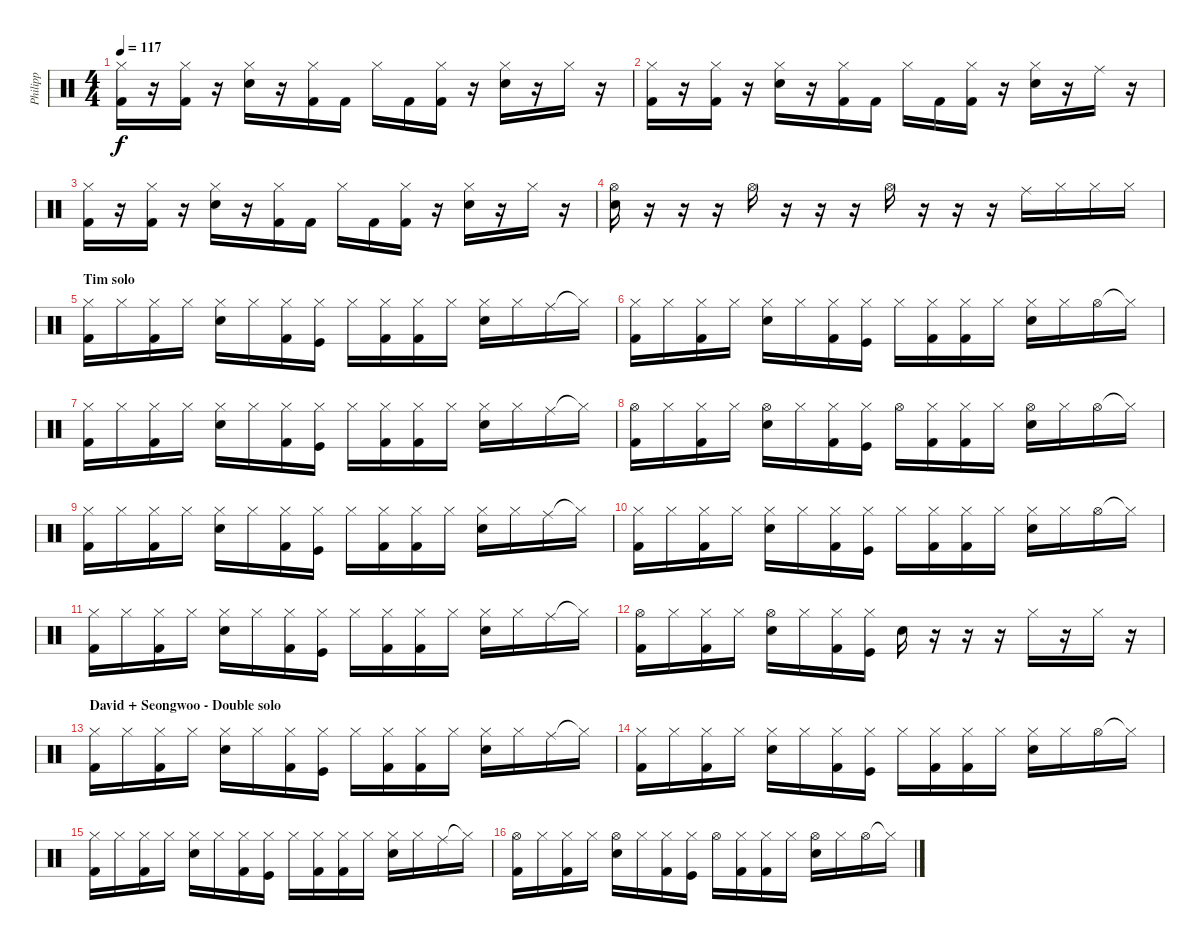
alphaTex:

\track ("Philipp" "Philipp") {instrument percussion}
\staff {score}
\articulation defaults
\ts (4 4)
\tempo 117
\clef neutral
\ks c
("Hi-Hat (closed)" "Kick (hit) 2").16{dy f} r.16 ("Hi-Hat (closed)" "Kick (hit) 2").16 r.16 ("Hi-Hat (closed)" "Electric Snare (hit)").16 r.16 ("Hi-Hat (closed)" "Kick (hit) 2").16 "Kick (hit) 2".16 "Hi-Hat (closed)".16 "Kick (hit) 2".16 ("Hi-Hat (closed)" "Kick (hit) 2").16 r.16 ("Hi-Hat (closed)" "Electric Snare (hit)").16 r.16 "Hi-Hat (closed)".16 r.16 |
("Hi-Hat (closed)" "Kick (hit) 2").16 r.16 ("Hi-Hat (closed)" "Kick (hit) 2").16 r.16 ("Hi-Hat (closed)" "Electric Snare (hit)").16 r.16 ("Hi-Hat (closed)" "Kick (hit) 2").16 "Kick (hit) 2".16 "Hi-Hat (closed)".16 "Kick (hit) 2".16 ("Hi-Hat (closed)" "Kick (hit) 2").16 r.16 ("Hi-Hat (closed)" "Electric Snare (hit)").16 r.16 "Ride (middle)".16 r.16 |
("Hi-Hat (closed)" "Kick (hit) 2").16 r.16 ("Hi-Hat (closed)" "Kick (hit) 2").16 r.16 ("Hi-Hat (closed)" "Electric Snare (hit)").16 r.16 ("Hi-Hat (closed)" "Kick (hit) 2").16 "Kick (hit) 2".16 "Hi-Hat (closed)".16 "Kick (hit) 2".16 ("Hi-Hat (closed)" "Kick (hit) 2").16 r.16 ("Hi-Hat (closed)" "Electric Snare (hit)").16 r.16 "Hi-Hat (closed)".16 r.16 |
("Hi-Hat (open)" "Electric Snare (hit)").16 r.16 r.16 r.16 "Hi-Hat (open)".16 r.16 r.16 r.16 "Hi-Hat (open)".16 r.16 r.16 r.16 "Ride (middle)".16 "Hi-Hat (closed)".16 "Hi-Hat (closed)".16 "Hi-Hat (closed)".16 |
\section ("" "Tim solo")
("Hi-Hat (closed)" "Kick (hit) 2").16 "Hi-Hat (closed)".16 ("Hi-Hat (closed)" "Kick (hit) 2").16 "Hi-Hat (closed)".16 ("Hi-Hat (closed)" "Electric Snare (hit)").16 "Hi-Hat (closed)".16 ("Hi-Hat (closed)" "Kick (hit) 2").16 ("Hi-Hat (closed)" "Kick (hit)").16 "Hi-Hat (closed)".16 ("Hi-Hat (closed)" "Kick (hit) 2").16 ("Hi-Hat (closed)" "Kick (hit) 2").16 "Hi-Hat (closed)".16 ("Hi-Hat (closed)" "Electric Snare (hit)").16 "Hi-Hat (closed)".16 "Ride (middle)".16 "Hi-Hat (closed)"{t}.16 |
("Hi-Hat (closed)" "Kick (hit) 2").16 "Hi-Hat (closed)".16 ("Hi-Hat (closed)" "Kick (hit) 2").16 "Hi-Hat (closed)".16 ("Hi-Hat (closed)" "Electric Snare (hit)").16 "Hi-Hat (closed)".16 ("Hi-Hat (closed)" "Kick (hit) 2").16 ("Hi-Hat (closed)" "Kick (hit)").16 "Hi-Hat (closed)".16 ("Hi-Hat (closed)" "Kick (hit) 2").16 ("Hi-Hat (closed)" "Kick (hit) 2").16 "Hi-Hat (closed)".16 ("Hi-Hat (closed)" "Electric Snare (hit)").16 "Hi-Hat (closed)".16 "Hi-Hat (open)".16 "Hi-Hat (closed)"{t}.16 |
("Hi-Hat (closed)" "Kick (hit) 2").16 "Hi-Hat (closed)".16 ("Hi-Hat (closed)" "Kick (hit) 2").16 "Hi-Hat (closed)".16 ("Hi-Hat (closed)" "Electric Snare (hit)").16 "Hi-Hat (closed)".16 ("Hi-Hat (closed)" "Kick (hit) 2").16 ("Hi-Hat (closed)" "Kick (hit)").16 "Hi-Hat (closed)".16 ("Hi-Hat (closed)" "Kick (hit) 2").16 ("Hi-Hat (closed)" "Kick (hit) 2").16 "Hi-Hat (closed)".16 ("Hi-Hat (closed)" "Electric Snare (hit)").16 "Hi-Hat (closed)".16 "Ride (middle)".16 "Hi-Hat (closed)"{t}.16 |
("Hi-Hat (open)" "Kick (hit) 2").16 "Hi-Hat (closed)".16 ("Hi-Hat (closed)" "Kick (hit) 2").16 "Hi-Hat (closed)".16 ("Hi-Hat (open)" "Electric Snare (hit)").16 "Hi-Hat (closed)".16 ("Hi-Hat (closed)" "Kick (hit) 2").16 ("Hi-Hat (closed)" "Kick (hit)").16 "Hi-Hat (open)".16 ("Hi-Hat (closed)" "Kick (hit) 2").16 ("Hi-Hat (closed)" "Kick (hit) 2").16 "Hi-Hat (closed)".16 ("Hi-Hat (open)" "Electric Snare (hit)").16 "Hi-Hat (closed)".16 "Hi-Hat (open)".16 "Hi-Hat (closed)"{t}.16 |
("Hi-Hat (closed)" "Kick (hit) 2").16 "Hi-Hat (closed)".16 ("Hi-Hat (closed)" "Kick (hit) 2").16 "Hi-Hat (closed)".16 ("Hi-Hat (closed)" "Electric Snare (hit)").16 "Hi-Hat (closed)".16 ("Hi-Hat (closed)" "Kick (hit) 2").16 ("Hi-Hat (closed)" "Kick (hit)").16 "Hi-Hat (closed)".16 ("Hi-Hat (closed)" "Kick (hit) 2").16 ("Hi-Hat (closed)" "Kick (hit) 2").16 "Hi-Hat (closed)".16 ("Hi-Hat (closed)" "Electric Snare (hit)").16 "Hi-Hat (closed)".16 "Ride (middle)".16 "Hi-Hat (closed)"{t}.16 |
("Hi-Hat (closed)" "Kick (hit) 2").16 "Hi-Hat (closed)".16 ("Hi-Hat (closed)" "Kick (hit) 2").16 "Hi-Hat (closed)".16 ("Hi-Hat (closed)" "Electric Snare (hit)").16 "Hi-Hat (closed)".16 ("Hi-Hat (closed)" "Kick (hit) 2").16 ("Hi-Hat (closed)" "Kick (hit)").16 "Hi-Hat (closed)".16 ("Hi-Hat (closed)" "Kick (hit) 2").16 ("Hi-Hat (closed)" "Kick (hit) 2").16 "Hi-Hat (closed)".16 ("Hi-Hat (closed)" "Electric Snare (hit)").16 "Hi-Hat (closed)".16 "Hi-Hat (open)".16 "Hi-Hat (closed)"{t}.16 |
("Hi-Hat (closed)" "Kick (hit) 2").16 "Hi-Hat (closed)".16 ("Hi-Hat (closed)" "Kick (hit) 2").16 "Hi-Hat (closed)".16 ("Hi-Hat (closed)" "Electric Snare (hit)").16 "Hi-Hat (closed)".16 ("Hi-Hat (closed)" "Kick (hit) 2").16 ("Hi-Hat (closed)" "Kick (hit)").16 "Hi-Hat (closed)".16 ("Hi-Hat (closed)" "Kick (hit) 2").16 ("Hi-Hat (closed)" "Kick (hit) 2").16 "Hi-Hat (closed)".16 ("Hi-Hat (closed)" "Electric Snare (hit)").16 "Hi-Hat (closed)".16 "Ride (middle)".16 "Hi-Hat (closed)"{t}.16 |
("Hi-Hat (open)" "Kick (hit) 2").16 "Hi-Hat (closed)".16 ("Hi-Hat (closed)" "Kick (hit) 2").16 "Hi-Hat (closed)".16 ("Hi-Hat (open)" "Electric Snare (hit)").16 "Hi-Hat (closed)".16 ("Hi-Hat (closed)" "Kick (hit) 2").16 ("Hi-Hat (closed)" "Kick (hit)").16 "Electric Snare (hit)".16 r.16 r.16 r.16 "Hi-Hat (closed)".16 r.16 "Hi-Hat (closed)".16 r.16 |
\section ("" "David + Seongwoo - Double solo")
("Hi-Hat (closed)" "Kick (hit) 2").16 "Hi-Hat (closed)".16 ("Hi-Hat (closed)" "Kick (hit) 2").16 "Hi-Hat (closed)".16 ("Hi-Hat (closed)" "Electric Snare (hit)").16 "Hi-Hat (closed)".16 ("Hi-Hat (closed)" "Kick (hit) 2").16 ("Hi-Hat (closed)" "Kick (hit)").16 "Hi-Hat (closed)".16 ("Hi-Hat (closed)" "Kick (hit) 2").16 ("Hi-Hat (closed)" "Kick (hit) 2").16 "Hi-Hat (closed)".16 ("Hi-Hat (closed)" "Electric Snare (hit)").16 "Hi-Hat (closed)".16 "Ride (middle)".16 "Hi-Hat (closed)"{t}.16 |
("Hi-Hat (closed)" "Kick (hit) 2").16 "Hi-Hat (closed)".16 ("Hi-Hat (closed)" "Kick (hit) 2").16 "Hi-Hat (closed)".16 ("Hi-Hat (closed)" "Electric Snare (hit)").16 "Hi-Hat (closed)".16 ("Hi-Hat (closed)" "Kick (hit) 2").16 ("Hi-Hat (closed)" "Kick (hit)").16 "Hi-Hat (closed)".16 ("Hi-Hat (closed)" "Kick (hit) 2").16 ("Hi-Hat (closed)" "Kick (hit) 2").16 "Hi-Hat (closed)".16 ("Hi-Hat (closed)" "Electric Snare (hit)").16 "Hi-Hat (closed)".16 "Hi-Hat (open)".16 "Hi-Hat (closed)"{t}.16 |
("Hi-Hat (closed)" "Kick (hit) 2").16 "Hi-Hat (closed)".16 ("Hi-Hat (closed)" "Kick (hit) 2").16 "Hi-Hat (closed)".16 ("Hi-Hat (closed)" "Electric Snare (hit)").16 "Hi-Hat (closed)".16 ("Hi-Hat (closed)" "Kick (hit) 2").16 ("Hi-Hat (closed)" "Kick (hit)").16 "Hi-Hat (closed)".16 ("Hi-Hat (closed)" "Kick (hit) 2").16 ("Hi-Hat (closed)" "Kick (hit) 2").16 "Hi-Hat (closed)".16 ("Hi-Hat (closed)" "Electric Snare (hit)").16 "Hi-Hat (closed)".16 "Ride (middle)".16 "Hi-Hat (closed)"{t}.16 |
("Hi-Hat (open)" "Kick (hit) 2").16 "Hi-Hat (closed)".16 ("Hi-Hat (closed)" "Kick (hit) 2").16 "Hi-Hat (closed)".16 ("Hi-Hat (open)" "Electric Snare (hit)").16 "Hi-Hat (closed)".16 ("Hi-Hat (closed)" "Kick (hit) 2").16 ("Hi-Hat (closed)" "Kick (hit)").16 "Hi-Hat (open)".16 ("Hi-Hat (closed)" "Kick (hit) 2").16 ("Hi-Hat (closed)" "Kick (hit) 2").16 "Hi-Hat (closed)".16 ("Hi-Hat (open)" "Electric Snare (hit)").16 "Hi-Hat (closed)".16 "Hi-Hat (open)".16 "Hi-Hat (closed)"{t}.16
